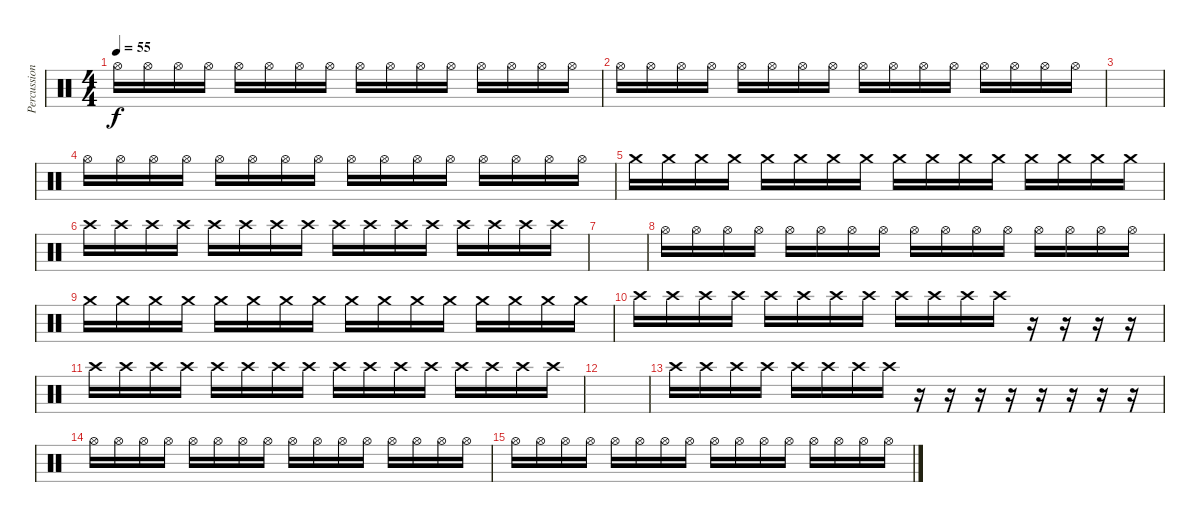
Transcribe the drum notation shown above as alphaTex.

\track ("Percussion" "Percussion") {instrument percussion}
\staff {score}
\articulation defaults
\ts (4 4)
\tempo 55
\clef neutral
\ks c "Hi-Hat (open)".16{dy f} "Hi-Hat (open)".16 "Hi-Hat (open)".16 "Hi-Hat (open)".16 "Hi-Hat (open)".16 "Hi-Hat (open)".16 "Hi-Hat (open)".16 "Hi-Hat (open)".16 "Hi-Hat (open)".16 "Hi-Hat (open)".16 "Hi-Hat (open)".16 "Hi-Hat (open)".16 "Hi-Hat (open)".16 "Hi-Hat (open)".16 "Hi-Hat (open)".16 "Hi-Hat (open)".16
|
"Hi-Hat (open)".16 "Hi-Hat (open)".16 "Hi-Hat (open)".16 "Hi-Hat (open)".16 "Hi-Hat (open)".16 "Hi-Hat (open)".16 "Hi-Hat (open)".16 "Hi-Hat (open)".16 "Hi-Hat (open)".16 "Hi-Hat (open)".16 "Hi-Hat (open)".16 "Hi-Hat (open)".16 "Hi-Hat (open)".16 "Hi-Hat (open)".16 "Hi-Hat (open)".16 "Hi-Hat (open)".16 |
|
"Hi-Hat (open)".16 "Hi-Hat (open)".16 "Hi-Hat (open)".16 "Hi-Hat (open)".16 "Hi-Hat (open)".16 "Hi-Hat (open)".16 "Hi-Hat (open)".16 "Hi-Hat (open)".16 "Hi-Hat (open)".16 "Hi-Hat (open)".16 "Hi-Hat (open)".16 "Hi-Hat (open)".16 "Hi-Hat (open)".16 "Hi-Hat (open)".16 "Hi-Hat (open)".16 "Hi-Hat (open)".16 |
"Crash medium (hit)".16 "Crash medium (hit)".16 "Crash medium (hit)".16 "Crash medium (hit)".16 "Crash medium (hit)".16 "Crash medium (hit)".16 "Crash medium (hit)".16 "Crash medium (hit)".16 "Crash medium (hit)".16 "Crash medium (hit)".16 "Crash medium (hit)".16 "Crash medium (hit)".16 "Crash medium (hit)".16 "Crash medium (hit)".16 "Crash medium (hit)".16 "Crash medium (hit)".16 |
"Crash high (hit)".16 "Crash high (hit)".16 "Crash high (hit)".16 "Crash high (hit)".16 "Crash high (hit)".16 "Crash high (hit)".16 "Crash high (hit)".16 "Crash high (hit)".16 "Crash high (hit)".16 "Crash high (hit)".16 "Crash high (hit)".16 "Crash high (hit)".16 "Crash high (hit)".16 "Crash high (hit)".16 "Crash high (hit)".16 "Crash high (hit)".16 |
|
"Hi-Hat (open)".16 "Hi-Hat (open)".16 "Hi-Hat (open)".16 "Hi-Hat (open)".16 "Hi-Hat (open)".16 "Hi-Hat (open)".16 "Hi-Hat (open)".16 "Hi-Hat (open)".16 "Hi-Hat (open)".16 "Hi-Hat (open)".16 "Hi-Hat (open)".16 "Hi-Hat (open)".16 "Hi-Hat (open)".16 "Hi-Hat (open)".16 "Hi-Hat (open)".16 "Hi-Hat (open)".16 |
"Crash medium (hit)".16 "Crash medium (hit)".16 "Crash medium (hit)".16 "Crash medium (hit)".16 "Crash medium (hit)".16 "Crash medium (hit)".16 "Crash medium (hit)".16 "Crash medium (hit)".16 "Crash medium (hit)".16 "Crash medium (hit)".16 "Crash medium (hit)".16 "Crash medium (hit)".16 "Crash medium (hit)".16 "Crash medium (hit)".16 "Crash medium (hit)".16 "Crash medium (hit)".16 |
"Crash high (hit)".16 "Crash high (hit)".16 "Crash high (hit)".16 "Crash high (hit)".16 "Crash high (hit)".16 "Crash high (hit)".16 "Crash high (hit)".16 "Crash high (hit)".16 "Crash high (hit)".16 "Crash high (hit)".16 "Crash high (hit)".16 "Crash high (hit)".16 r.16 r.16 r.16 r.16 |
"Crash high (hit)".16 "Crash high (hit)".16 "Crash high (hit)".16 "Crash high (hit)".16 "Crash high (hit)".16 "Crash high (hit)".16 "Crash high (hit)".16 "Crash high (hit)".16 "Crash high (hit)".16 "Crash high (hit)".16 "Crash high (hit)".16 "Crash high (hit)".16 "Crash high (hit)".16 "Crash high (hit)".16 "Crash high (hit)".16 "Crash high (hit)".16 |
|
"Crash high (hit)".16 "Crash high (hit)".16 "Crash high (hit)".16 "Crash high (hit)".16 "Crash high (hit)".16 "Crash high (hit)".16 "Crash high (hit)".16 "Crash high (hit)".16 r.16 r.16 r.16 r.16 r.16 r.16 r.16 r.16 |
"Hi-Hat (open)".16 "Hi-Hat (open)".16 "Hi-Hat (open)".16 "Hi-Hat (open)".16 "Hi-Hat (open)".16 "Hi-Hat (open)".16 "Hi-Hat (open)".16 "Hi-Hat (open)".16 "Hi-Hat (open)".16 "Hi-Hat (open)".16 "Hi-Hat (open)".16 "Hi-Hat (open)".16 "Hi-Hat (open)".16 "Hi-Hat (open)".16 "Hi-Hat (open)".16 "Hi-Hat (open)".16 |
"Hi-Hat (open)".16 "Hi-Hat (open)".16 "Hi-Hat (open)".16 "Hi-Hat (open)".16 "Hi-Hat (open)".16 "Hi-Hat (open)".16 "Hi-Hat (open)".16 "Hi-Hat (open)".16 "Hi-Hat (open)".16 "Hi-Hat (open)".16 "Hi-Hat (open)".16 "Hi-Hat (open)".16 "Hi-Hat (open)".16 "Hi-Hat (open)".16 "Hi-Hat (open)".16 "Hi-Hat (open)".16
